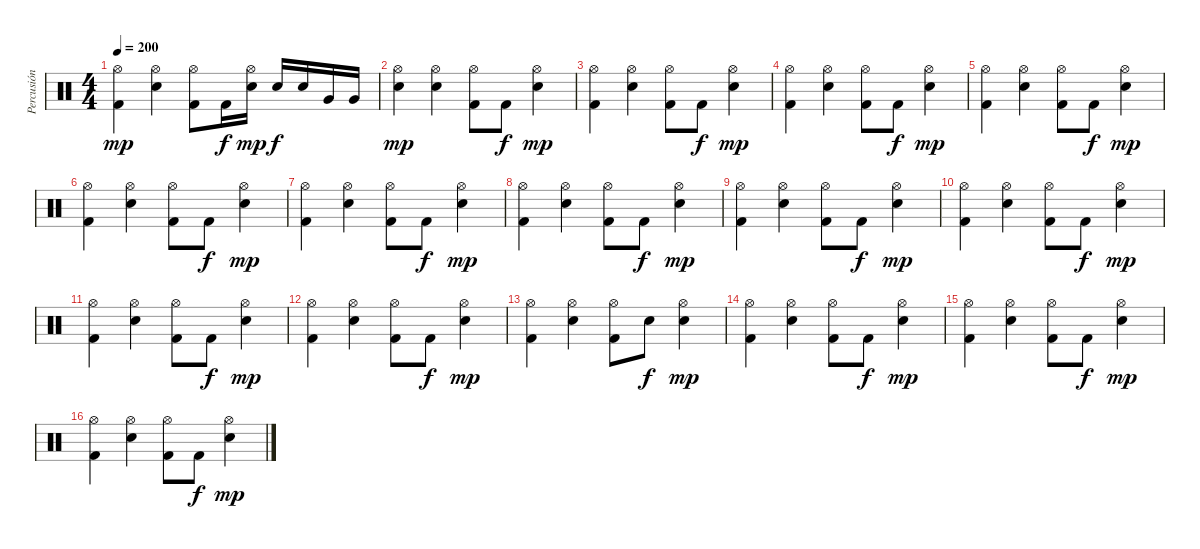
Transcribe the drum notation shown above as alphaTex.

\track ("Percusión" "Percusión") {instrument percussion}
\staff {score}
\articulation defaults
\ts (4 4)
\tempo 200
\clef neutral
\ks c
("Hi-Hat (open)" "Kick (hit) 2").4{dy mp} ("Hi-Hat (open)" "Electric Snare (hit)").4 ("Hi-Hat (open)" "Kick (hit) 2").8 "Kick (hit) 2".16{dy f} ("Hi-Hat (open)" "Electric Snare (hit)").16{dy mp} "Electric Snare (hit)".16{dy f} "Electric Snare (hit)".16 "Very Low Tom (hit)".16 "Very Low Tom (hit)".16 |
("Hi-Hat (open)" "Electric Snare (hit)").4{dy mp} ("Hi-Hat (open)" "Electric Snare (hit)").4 ("Hi-Hat (open)" "Kick (hit) 2").8 "Kick (hit) 2".8{dy f} ("Hi-Hat (open)" "Electric Snare (hit)").4{dy mp} |
("Hi-Hat (open)" "Kick (hit) 2").4 ("Hi-Hat (open)" "Electric Snare (hit)").4 ("Hi-Hat (open)" "Kick (hit) 2").8 "Kick (hit) 2".8{dy f} ("Hi-Hat (open)" "Electric Snare (hit)").4{dy mp} |
("Hi-Hat (open)" "Kick (hit) 2").4 ("Hi-Hat (open)" "Electric Snare (hit)").4 ("Hi-Hat (open)" "Kick (hit) 2").8 "Kick (hit) 2".8{dy f} ("Hi-Hat (open)" "Electric Snare (hit)").4{dy mp} |
("Hi-Hat (open)" "Kick (hit) 2").4 ("Hi-Hat (open)" "Electric Snare (hit)").4 ("Hi-Hat (open)" "Kick (hit) 2").8 "Kick (hit) 2".8{dy f} ("Hi-Hat (open)" "Electric Snare (hit)").4{dy mp} |
("Hi-Hat (open)" "Kick (hit) 2").4 ("Hi-Hat (open)" "Electric Snare (hit)").4 ("Hi-Hat (open)" "Kick (hit) 2").8 "Kick (hit) 2".8{dy f} ("Hi-Hat (open)" "Electric Snare (hit)").4{dy mp} |
("Hi-Hat (open)" "Kick (hit) 2").4 ("Hi-Hat (open)" "Electric Snare (hit)").4 ("Hi-Hat (open)" "Kick (hit) 2").8 "Kick (hit) 2".8{dy f} ("Hi-Hat (open)" "Electric Snare (hit)").4{dy mp} |
("Hi-Hat (open)" "Kick (hit) 2").4 ("Hi-Hat (open)" "Electric Snare (hit)").4 ("Hi-Hat (open)" "Kick (hit) 2").8 "Kick (hit) 2".8{dy f} ("Hi-Hat (open)" "Electric Snare (hit)").4{dy mp} |
("Hi-Hat (open)" "Kick (hit) 2").4 ("Hi-Hat (open)" "Electric Snare (hit)").4 ("Hi-Hat (open)" "Kick (hit) 2").8 "Kick (hit) 2".8{dy f} ("Hi-Hat (open)" "Electric Snare (hit)").4{dy mp} |
("Hi-Hat (open)" "Kick (hit) 2").4 ("Hi-Hat (open)" "Electric Snare (hit)").4 ("Hi-Hat (open)" "Kick (hit) 2").8 "Kick (hit) 2".8{dy f} ("Hi-Hat (open)" "Electric Snare (hit)").4{dy mp} |
("Hi-Hat (open)" "Kick (hit) 2").4 ("Hi-Hat (open)" "Electric Snare (hit)").4 ("Hi-Hat (open)" "Kick (hit) 2").8 "Kick (hit) 2".8{dy f} ("Hi-Hat (open)" "Electric Snare (hit)").4{dy mp} |
("Hi-Hat (open)" "Kick (hit) 2").4 ("Hi-Hat (open)" "Electric Snare (hit)").4 ("Hi-Hat (open)" "Kick (hit) 2").8 "Kick (hit) 2".8{dy f} ("Hi-Hat (open)" "Electric Snare (hit)").4{dy mp} |
("Hi-Hat (open)" "Kick (hit) 2").4 ("Hi-Hat (open)" "Electric Snare (hit)").4 ("Hi-Hat (open)" "Kick (hit) 2").8 "Electric Snare (hit)".8{dy f} ("Hi-Hat (open)" "Electric Snare (hit)").4{dy mp} |
("Hi-Hat (open)" "Kick (hit) 2").4 ("Hi-Hat (open)" "Electric Snare (hit)").4 ("Hi-Hat (open)" "Kick (hit) 2").8 "Kick (hit) 2".8{dy f} ("Hi-Hat (open)" "Electric Snare (hit)").4{dy mp} |
("Hi-Hat (open)" "Kick (hit) 2").4 ("Hi-Hat (open)" "Electric Snare (hit)").4 ("Hi-Hat (open)" "Kick (hit) 2").8 "Kick (hit) 2".8{dy f} ("Hi-Hat (open)" "Electric Snare (hit)").4{dy mp} |
("Hi-Hat (open)" "Kick (hit) 2").4 ("Hi-Hat (open)" "Electric Snare (hit)").4 ("Hi-Hat (open)" "Kick (hit) 2").8 "Kick (hit) 2".8{dy f} ("Hi-Hat (open)" "Electric Snare (hit)").4{dy mp}
